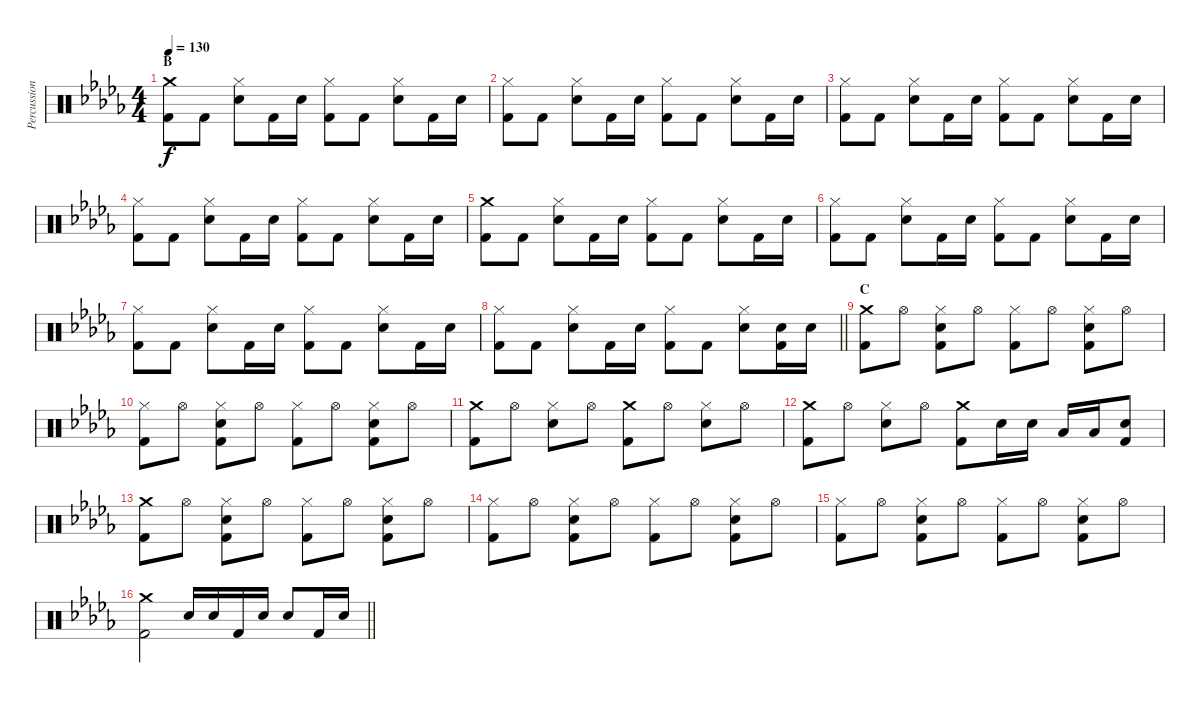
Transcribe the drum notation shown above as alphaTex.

\track ("Percussion" "Percussion") {instrument percussion}
\staff {score}
\articulation defaults
\ts (4 4)
\section ("" "B")
\tempo 130
\clef neutral
\ks db
("Crash medium (hit)" "Kick (hit) 2").8{dy f} "Kick (hit) 2".8 ("Hi-Hat (closed)" "Electric Snare (hit)").8 "Kick (hit) 2".16 "Electric Snare (hit)".16 ("Hi-Hat (closed)" "Kick (hit) 2").8 "Kick (hit) 2".8 ("Hi-Hat (closed)" "Electric Snare (hit)").8 "Kick (hit) 2".16 "Electric Snare (hit)".16 |
("Hi-Hat (closed)" "Kick (hit) 2").8 "Kick (hit) 2".8 ("Hi-Hat (closed)" "Electric Snare (hit)").8 "Kick (hit) 2".16 "Electric Snare (hit)".16 ("Hi-Hat (closed)" "Kick (hit) 2").8 "Kick (hit) 2".8 ("Hi-Hat (closed)" "Electric Snare (hit)").8 "Kick (hit) 2".16 "Electric Snare (hit)".16 |
("Hi-Hat (closed)" "Kick (hit) 2").8 "Kick (hit) 2".8 ("Hi-Hat (closed)" "Electric Snare (hit)").8 "Kick (hit) 2".16 "Electric Snare (hit)".16 ("Hi-Hat (closed)" "Kick (hit) 2").8 "Kick (hit) 2".8 ("Hi-Hat (closed)" "Electric Snare (hit)").8 "Kick (hit) 2".16 "Electric Snare (hit)".16 |
("Hi-Hat (closed)" "Kick (hit) 2").8 "Kick (hit) 2".8 ("Hi-Hat (closed)" "Electric Snare (hit)").8 "Kick (hit) 2".16 "Electric Snare (hit)".16 ("Hi-Hat (closed)" "Kick (hit) 2").8 "Kick (hit) 2".8 ("Hi-Hat (closed)" "Electric Snare (hit)").8 "Kick (hit) 2".16 "Electric Snare (hit)".16 |
("Crash medium (hit)" "Kick (hit) 2").8 "Kick (hit) 2".8 ("Hi-Hat (closed)" "Electric Snare (hit)").8 "Kick (hit) 2".16 "Electric Snare (hit)".16 ("Hi-Hat (closed)" "Kick (hit) 2").8 "Kick (hit) 2".8 ("Hi-Hat (closed)" "Electric Snare (hit)").8 "Kick (hit) 2".16 "Electric Snare (hit)".16 |
("Hi-Hat (closed)" "Kick (hit) 2").8 "Kick (hit) 2".8 ("Hi-Hat (closed)" "Electric Snare (hit)").8 "Kick (hit) 2".16 "Electric Snare (hit)".16 ("Hi-Hat (closed)" "Kick (hit) 2").8 "Kick (hit) 2".8 ("Hi-Hat (closed)" "Electric Snare (hit)").8 "Kick (hit) 2".16 "Electric Snare (hit)".16 |
("Hi-Hat (closed)" "Kick (hit) 2").8 "Kick (hit) 2".8 ("Hi-Hat (closed)" "Electric Snare (hit)").8 "Kick (hit) 2".16 "Electric Snare (hit)".16 ("Hi-Hat (closed)" "Kick (hit) 2").8 "Kick (hit) 2".8 ("Hi-Hat (closed)" "Electric Snare (hit)").8 "Kick (hit) 2".16 "Electric Snare (hit)".16 |
\barLineRight lightlight
("Hi-Hat (closed)" "Kick (hit) 2").8 "Kick (hit) 2".8 ("Hi-Hat (closed)" "Electric Snare (hit)").8 "Kick (hit) 2".16 "Electric Snare (hit)".16 ("Hi-Hat (closed)" "Kick (hit) 2").8 "Kick (hit) 2".8 ("Hi-Hat (closed)" "Electric Snare (hit)").8 ("Electric Snare (hit)" "Kick (hit) 2").16 "Electric Snare (hit)".16 |
\section ("" "C")
("Crash medium (hit)" "Kick (hit) 2").8 "Hi-Hat (open)".8 ("Hi-Hat (closed)" "Electric Snare (hit)" "Kick (hit) 2").8 "Hi-Hat (open)".8 ("Hi-Hat (closed)" "Kick (hit) 2").8 "Hi-Hat (open)".8 ("Hi-Hat (closed)" "Electric Snare (hit)" "Kick (hit) 2").8 "Hi-Hat (open)".8 |
("Hi-Hat (closed)" "Kick (hit) 2").8 "Hi-Hat (open)".8 ("Hi-Hat (closed)" "Electric Snare (hit)" "Kick (hit) 2").8 "Hi-Hat (open)".8 ("Hi-Hat (closed)" "Kick (hit) 2").8 "Hi-Hat (open)".8 ("Hi-Hat (closed)" "Electric Snare (hit)" "Kick (hit) 2").8 "Hi-Hat (open)".8 |
("Crash medium (hit)" "Kick (hit) 2").8 "Hi-Hat (open)".8 ("Hi-Hat (closed)" "Electric Snare (hit)").8 "Hi-Hat (open)".8 ("Crash medium (hit)" "Kick (hit) 2").8 "Hi-Hat (open)".8 ("Hi-Hat (closed)" "Electric Snare (hit)").8 "Hi-Hat (open)".8 |
("Crash medium (hit)" "Kick (hit) 2").8 "Hi-Hat (open)".8 ("Hi-Hat (closed)" "Electric Snare (hit)").8 "Hi-Hat (open)".8 ("Crash medium (hit)" "Kick (hit) 2").8 "Electric Snare (hit)".16 "Electric Snare (hit)".16 "Low Tom (hit)".16 "Low Tom (hit)".16 ("Electric Snare (hit)" "Kick (hit) 2").8 |
("Crash medium (hit)" "Kick (hit) 2").8 "Hi-Hat (open)".8 ("Hi-Hat (closed)" "Electric Snare (hit)" "Kick (hit) 2").8 "Hi-Hat (open)".8 ("Hi-Hat (closed)" "Kick (hit) 2").8 "Hi-Hat (open)".8 ("Hi-Hat (closed)" "Electric Snare (hit)" "Kick (hit) 2").8 "Hi-Hat (open)".8 |
("Hi-Hat (closed)" "Kick (hit) 2").8 "Hi-Hat (open)".8 ("Hi-Hat (closed)" "Electric Snare (hit)" "Kick (hit) 2").8 "Hi-Hat (open)".8 ("Hi-Hat (closed)" "Kick (hit) 2").8 "Hi-Hat (open)".8 ("Hi-Hat (closed)" "Electric Snare (hit)" "Kick (hit) 2").8 "Hi-Hat (open)".8 |
("Hi-Hat (closed)" "Kick (hit) 2").8 "Hi-Hat (open)".8 ("Hi-Hat (closed)" "Electric Snare (hit)" "Kick (hit) 2").8 "Hi-Hat (open)".8 ("Hi-Hat (closed)" "Kick (hit) 2").8 "Hi-Hat (open)".8 ("Hi-Hat (closed)" "Electric Snare (hit)" "Kick (hit) 2").8 "Hi-Hat (open)".8 |
\barLineRight lightlight
("Crash medium (hit)" "Kick (hit) 2").2 "Electric Snare (hit)".16 "Electric Snare (hit)".16 "Kick (hit) 2".16 "Electric Snare (hit)".16 "Electric Snare (hit)".8 "Kick (hit) 2".16 "Electric Snare (hit)".16
